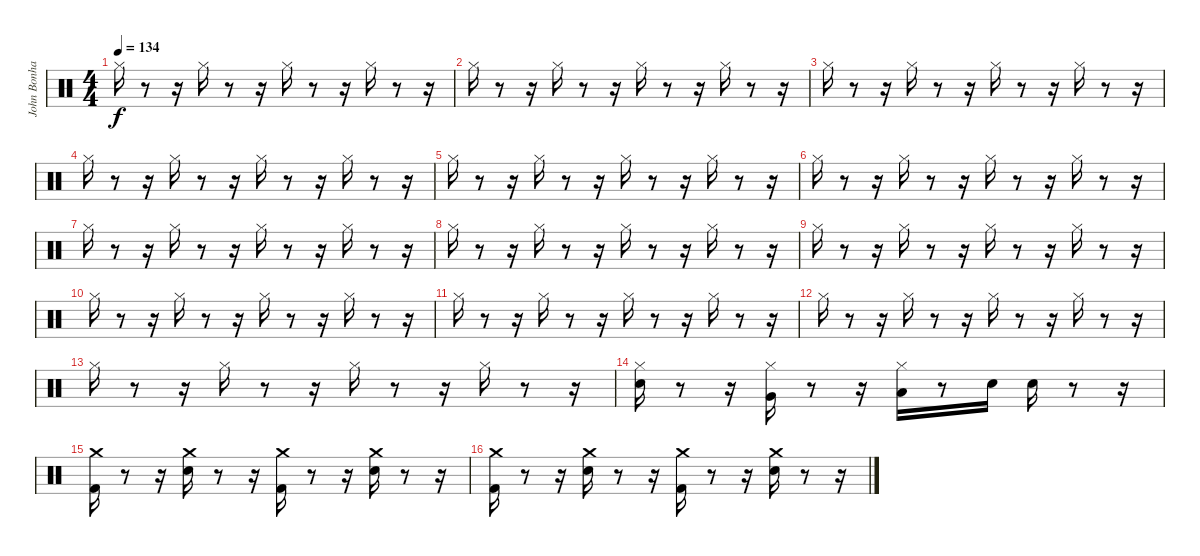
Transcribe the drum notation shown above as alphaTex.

\track ("John Bonham - Drums" "John Bonha") {instrument percussion}
\staff {score}
\articulation defaults
\ts (4 4)
\tempo 134
\clef neutral
\ks c "Hi-Hat (closed)".16{dy f}
r.8 r.16 "Hi-Hat (closed)".16 r.8 r.16 "Hi-Hat (closed)".16 r.8 r.16 "Hi-Hat (closed)".16 r.8 r.16 |
"Hi-Hat (closed)".16 r.8 r.16 "Hi-Hat (closed)".16 r.8 r.16 "Hi-Hat (closed)".16 r.8 r.16 "Hi-Hat (closed)".16 r.8 r.16 |
"Hi-Hat (closed)".16 r.8 r.16 "Hi-Hat (closed)".16 r.8 r.16 "Hi-Hat (closed)".16 r.8 r.16 "Hi-Hat (closed)".16 r.8 r.16 |
"Hi-Hat (closed)".16 r.8 r.16 "Hi-Hat (closed)".16 r.8 r.16 "Hi-Hat (closed)".16 r.8 r.16 "Hi-Hat (closed)".16 r.8 r.16 |
"Hi-Hat (closed)".16 r.8 r.16 "Hi-Hat (closed)".16 r.8 r.16 "Hi-Hat (closed)".16 r.8 r.16 "Hi-Hat (closed)".16 r.8 r.16 |
"Hi-Hat (closed)".16 r.8 r.16 "Hi-Hat (closed)".16 r.8 r.16 "Hi-Hat (closed)".16 r.8 r.16 "Hi-Hat (closed)".16 r.8 r.16 |
"Hi-Hat (closed)".16 r.8 r.16 "Hi-Hat (closed)".16 r.8 r.16 "Hi-Hat (closed)".16 r.8 r.16 "Hi-Hat (closed)".16 r.8 r.16 |
"Hi-Hat (closed)".16 r.8 r.16 "Hi-Hat (closed)".16 r.8 r.16 "Hi-Hat (closed)".16 r.8 r.16 "Hi-Hat (closed)".16 r.8 r.16 |
"Hi-Hat (closed)".16 r.8 r.16 "Hi-Hat (closed)".16 r.8 r.16 "Hi-Hat (closed)".16 r.8 r.16 "Hi-Hat (closed)".16 r.8 r.16 |
"Hi-Hat (closed)".16 r.8 r.16 "Hi-Hat (closed)".16 r.8 r.16 "Hi-Hat (closed)".16 r.8 r.16 "Hi-Hat (closed)".16 r.8 r.16 |
"Hi-Hat (closed)".16 r.8 r.16 "Hi-Hat (closed)".16 r.8 r.16 "Hi-Hat (closed)".16 r.8 r.16 "Hi-Hat (closed)".16 r.8 r.16 |
"Hi-Hat (closed)".16 r.8 r.16 "Hi-Hat (closed)".16 r.8 r.16 "Hi-Hat (closed)".16 r.8 r.16 "Hi-Hat (closed)".16 r.8 r.16 |
"Hi-Hat (closed)".16 r.8 r.16 "Hi-Hat (closed)".16 r.8 r.16 "Hi-Hat (closed)".16 r.8 r.16 "Hi-Hat (closed)".16 r.8 r.16 |
("Hi-Hat (closed)" "Electric Snare (hit)").16 r.8 r.16 ("Hi-Hat (closed)" "Very Low Tom (hit)").16 r.8 r.16 ("Hi-Hat (closed)" "Low Tom (hit)").16 r.8 "Electric Snare (hit)".16 "Electric Snare (hit)".16 r.8 r.16 |
("Kick (hit) 2" "Crash medium (hit)").16 r.8 r.16 ("Snare (hit) 2" "Crash medium (hit)").16 r.8 r.16 ("Kick (hit) 2" "Crash medium (hit)").16 r.8 r.16 ("Snare (hit) 2" "Crash medium (hit)").16 r.8 r.16 |
("Kick (hit) 2" "Crash medium (hit)").16 r.8 r.16 ("Snare (hit) 2" "Crash medium (hit)").16 r.8 r.16 ("Kick (hit) 2" "Crash medium (hit)").16 r.8 r.16 ("Snare (hit) 2" "Crash medium (hit)").16 r.8 r.16
